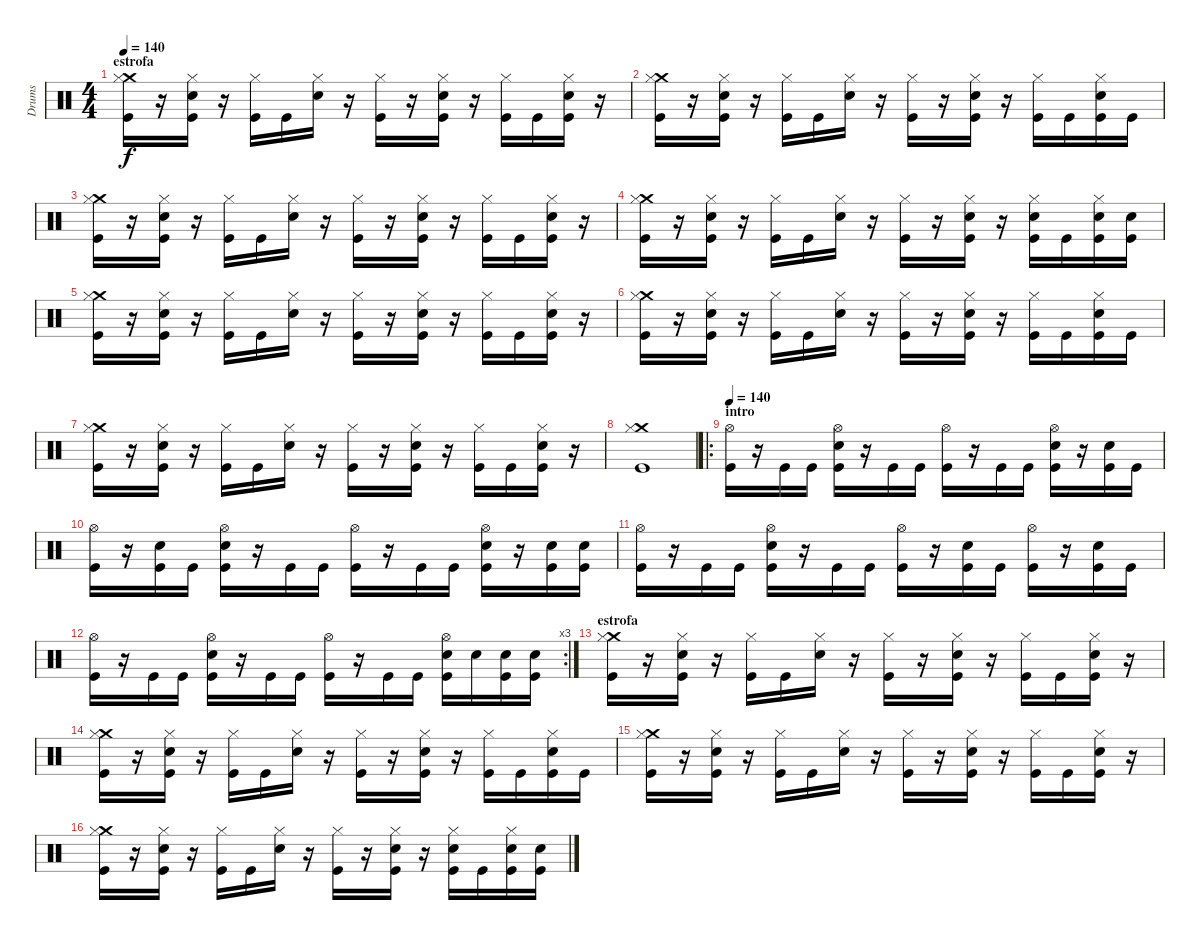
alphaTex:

\track ("Drums" "Drums") {instrument percussion}
\staff {score}
\articulation defaults
\ts (4 4)
\section ("" "estrofa")
\tempo 140
\clef neutral
\ks c
("Crash medium (hit)" "Hi-Hat (closed)" "Kick (hit)").16{dy f} r.16 ("Hi-Hat (closed)" "Electric Snare (hit)" "Kick (hit)").16 r.16 ("Hi-Hat (closed)" "Kick (hit)").16 "Kick (hit)".16 ("Hi-Hat (closed)" "Electric Snare (hit)").16 r.16 ("Hi-Hat (closed)" "Kick (hit)").16 r.16 ("Hi-Hat (closed)" "Electric Snare (hit)" "Kick (hit)").16 r.16 ("Hi-Hat (closed)" "Kick (hit)").16 "Kick (hit)".16 ("Hi-Hat (closed)" "Electric Snare (hit)" "Kick (hit)").16 r.16 |
("Crash medium (hit)" "Hi-Hat (closed)" "Kick (hit)").16 r.16 ("Hi-Hat (closed)" "Electric Snare (hit)" "Kick (hit)").16 r.16 ("Hi-Hat (closed)" "Kick (hit)").16 "Kick (hit)".16 ("Hi-Hat (closed)" "Electric Snare (hit)").16 r.16 ("Hi-Hat (closed)" "Kick (hit)").16 r.16 ("Hi-Hat (closed)" "Electric Snare (hit)" "Kick (hit)").16 r.16 ("Hi-Hat (closed)" "Kick (hit)").16 "Kick (hit)".16 ("Hi-Hat (closed)" "Electric Snare (hit)" "Kick (hit)").16 "Kick (hit)".16 |
("Crash medium (hit)" "Hi-Hat (closed)" "Kick (hit)").16 r.16 ("Hi-Hat (closed)" "Electric Snare (hit)" "Kick (hit)").16 r.16 ("Hi-Hat (closed)" "Kick (hit)").16 "Kick (hit)".16 ("Hi-Hat (closed)" "Electric Snare (hit)").16 r.16 ("Hi-Hat (closed)" "Kick (hit)").16 r.16 ("Hi-Hat (closed)" "Electric Snare (hit)" "Kick (hit)").16 r.16 ("Hi-Hat (closed)" "Kick (hit)").16 "Kick (hit)".16 ("Hi-Hat (closed)" "Electric Snare (hit)" "Kick (hit)").16 r.16 |
("Crash medium (hit)" "Hi-Hat (closed)" "Kick (hit)").16 r.16 ("Hi-Hat (closed)" "Electric Snare (hit)" "Kick (hit)").16 r.16 ("Hi-Hat (closed)" "Kick (hit)").16 "Kick (hit)".16 ("Hi-Hat (closed)" "Electric Snare (hit)").16 r.16 ("Hi-Hat (closed)" "Kick (hit)").16 r.16 ("Hi-Hat (closed)" "Electric Snare (hit)" "Kick (hit)").16 r.16 ("Hi-Hat (closed)" "Electric Snare (hit)" "Kick (hit)").16 "Kick (hit)".16 ("Hi-Hat (closed)" "Electric Snare (hit)" "Kick (hit)").16 ("Electric Snare (hit)" "Kick (hit)").16 |
("Crash medium (hit)" "Hi-Hat (closed)" "Kick (hit)").16 r.16 ("Hi-Hat (closed)" "Electric Snare (hit)" "Kick (hit)").16 r.16 ("Hi-Hat (closed)" "Kick (hit)").16 "Kick (hit)".16 ("Hi-Hat (closed)" "Electric Snare (hit)").16 r.16 ("Hi-Hat (closed)" "Kick (hit)").16 r.16 ("Hi-Hat (closed)" "Electric Snare (hit)" "Kick (hit)").16 r.16 ("Hi-Hat (closed)" "Kick (hit)").16 "Kick (hit)".16 ("Hi-Hat (closed)" "Electric Snare (hit)" "Kick (hit)").16 r.16 |
("Crash medium (hit)" "Hi-Hat (closed)" "Kick (hit)").16 r.16 ("Hi-Hat (closed)" "Electric Snare (hit)" "Kick (hit)").16 r.16 ("Hi-Hat (closed)" "Kick (hit)").16 "Kick (hit)".16 ("Hi-Hat (closed)" "Electric Snare (hit)").16 r.16 ("Hi-Hat (closed)" "Kick (hit)").16 r.16 ("Hi-Hat (closed)" "Electric Snare (hit)" "Kick (hit)").16 r.16 ("Hi-Hat (closed)" "Kick (hit)").16 "Kick (hit)".16 ("Hi-Hat (closed)" "Electric Snare (hit)" "Kick (hit)").16 "Kick (hit)".16 |
("Crash medium (hit)" "Hi-Hat (closed)" "Kick (hit)").16 r.16 ("Hi-Hat (closed)" "Electric Snare (hit)" "Kick (hit)").16 r.16 ("Hi-Hat (closed)" "Kick (hit)").16 "Kick (hit)".16 ("Hi-Hat (closed)" "Electric Snare (hit)").16 r.16 ("Hi-Hat (closed)" "Kick (hit)").16 r.16 ("Hi-Hat (closed)" "Electric Snare (hit)" "Kick (hit)").16 r.16 ("Hi-Hat (closed)" "Kick (hit)").16 "Kick (hit)".16 ("Hi-Hat (closed)" "Electric Snare (hit)" "Kick (hit)").16 r.16 |
("Crash medium (hit)" "Hi-Hat (closed)" "Kick (hit)").1 |
\ro
\section ("" "intro")
\tempo 140
("Hi-Hat (open)" "Kick (hit)").16 r.16 "Kick (hit)".16 "Kick (hit)".16 ("Hi-Hat (open)" "Electric Snare (hit)" "Kick (hit)").16 r.16 "Kick (hit)".16 "Kick (hit)".16 ("Hi-Hat (open)" "Kick (hit)").16 r.16 "Kick (hit)".16 "Kick (hit)".16 ("Hi-Hat (open)" "Electric Snare (hit)" "Kick (hit)").16 r.16 ("Electric Snare (hit)" "Kick (hit)").16 "Kick (hit)".16 |
("Hi-Hat (open)" "Kick (hit)").16 r.16 ("Electric Snare (hit)" "Kick (hit)").16 "Kick (hit)".16 ("Hi-Hat (open)" "Electric Snare (hit)" "Kick (hit)").16 r.16 "Kick (hit)".16 "Kick (hit)".16 ("Hi-Hat (open)" "Kick (hit)").16 r.16 "Kick (hit)".16 "Kick (hit)".16 ("Hi-Hat (open)" "Electric Snare (hit)" "Kick (hit)").16 r.16 ("Electric Snare (hit)" "Kick (hit)").16 ("Electric Snare (hit)" "Kick (hit)").16 |
("Hi-Hat (open)" "Kick (hit)").16 r.16 "Kick (hit)".16 "Kick (hit)".16 ("Hi-Hat (open)" "Electric Snare (hit)" "Kick (hit)").16 r.16 "Kick (hit)".16 "Kick (hit)".16 ("Hi-Hat (open)" "Kick (hit)").16 r.16 ("Electric Snare (hit)" "Kick (hit)").16 "Kick (hit)".16 ("Hi-Hat (open)" "Kick (hit)").16 r.16 ("Electric Snare (hit)" "Kick (hit)").16 "Kick (hit)".16 |
\rc 3
("Hi-Hat (open)" "Kick (hit)").16 r.16 "Kick (hit)".16 "Kick (hit)".16 ("Hi-Hat (open)" "Electric Snare (hit)" "Kick (hit)").16 r.16 "Kick (hit)".16 "Kick (hit)".16 ("Hi-Hat (open)" "Kick (hit)").16 r.16 "Kick (hit)".16 "Kick (hit)".16 ("Hi-Hat (open)" "Electric Snare (hit)" "Kick (hit)").16 "Electric Snare (hit)".16 ("Electric Snare (hit)" "Kick (hit)").16 ("Electric Snare (hit)" "Kick (hit)").16 |
\section ("" "estrofa")
("Crash medium (hit)" "Hi-Hat (closed)" "Kick (hit)").16 r.16 ("Hi-Hat (closed)" "Electric Snare (hit)" "Kick (hit)").16 r.16 ("Hi-Hat (closed)" "Kick (hit)").16 "Kick (hit)".16 ("Hi-Hat (closed)" "Electric Snare (hit)").16 r.16 ("Hi-Hat (closed)" "Kick (hit)").16 r.16 ("Hi-Hat (closed)" "Electric Snare (hit)" "Kick (hit)").16 r.16 ("Hi-Hat (closed)" "Kick (hit)").16 "Kick (hit)".16 ("Hi-Hat (closed)" "Electric Snare (hit)" "Kick (hit)").16 r.16 |
("Crash medium (hit)" "Hi-Hat (closed)" "Kick (hit)").16 r.16 ("Hi-Hat (closed)" "Electric Snare (hit)" "Kick (hit)").16 r.16 ("Hi-Hat (closed)" "Kick (hit)").16 "Kick (hit)".16 ("Hi-Hat (closed)" "Electric Snare (hit)").16 r.16 ("Hi-Hat (closed)" "Kick (hit)").16 r.16 ("Hi-Hat (closed)" "Electric Snare (hit)" "Kick (hit)").16 r.16 ("Hi-Hat (closed)" "Kick (hit)").16 "Kick (hit)".16 ("Hi-Hat (closed)" "Electric Snare (hit)" "Kick (hit)").16 "Kick (hit)".16 |
("Crash medium (hit)" "Hi-Hat (closed)" "Kick (hit)").16 r.16 ("Hi-Hat (closed)" "Electric Snare (hit)" "Kick (hit)").16 r.16 ("Hi-Hat (closed)" "Kick (hit)").16 "Kick (hit)".16 ("Hi-Hat (closed)" "Electric Snare (hit)").16 r.16 ("Hi-Hat (closed)" "Kick (hit)").16 r.16 ("Hi-Hat (closed)" "Electric Snare (hit)" "Kick (hit)").16 r.16 ("Hi-Hat (closed)" "Kick (hit)").16 "Kick (hit)".16 ("Hi-Hat (closed)" "Electric Snare (hit)" "Kick (hit)").16 r.16 |
("Crash medium (hit)" "Hi-Hat (closed)" "Kick (hit)").16 r.16 ("Hi-Hat (closed)" "Electric Snare (hit)" "Kick (hit)").16 r.16 ("Hi-Hat (closed)" "Kick (hit)").16 "Kick (hit)".16 ("Hi-Hat (closed)" "Electric Snare (hit)").16 r.16 ("Hi-Hat (closed)" "Kick (hit)").16 r.16 ("Hi-Hat (closed)" "Electric Snare (hit)" "Kick (hit)").16 r.16 ("Hi-Hat (closed)" "Electric Snare (hit)" "Kick (hit)").16 "Kick (hit)".16 ("Hi-Hat (closed)" "Electric Snare (hit)" "Kick (hit)").16 ("Electric Snare (hit)" "Kick (hit)").16
